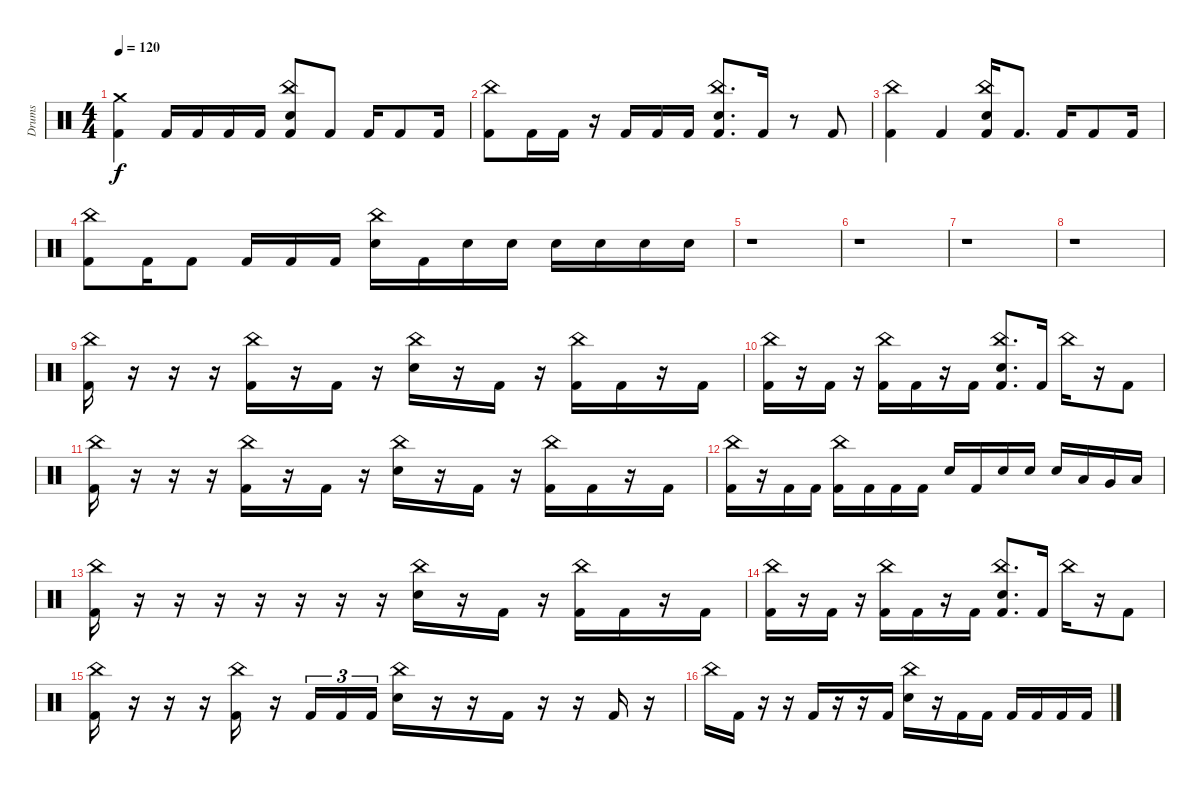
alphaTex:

\track ("Drums" "Drums") {instrument percussion}
\staff {score}
\articulation defaults
\ts (4 4)
\tempo 120
\clef neutral
\ks c
("Crash medium (hit)" "Kick (hit) 2").4{dy f} "Kick (hit) 2".16 "Kick (hit) 2".16 "Kick (hit) 2".16 "Kick (hit) 2".16 ("China (hit)" "Electric Snare (hit)" "Kick (hit) 2").8 "Kick (hit) 2".8 "Kick (hit) 2".16 "Kick (hit) 2".8 "Kick (hit) 2".16 |
("China (hit)" "Kick (hit) 2").8 "Kick (hit) 2".16 "Kick (hit) 2".16 r.16 "Kick (hit) 2".16 "Kick (hit) 2".16 "Kick (hit) 2".16 ("China (hit)" "Electric Snare (hit)" "Kick (hit) 2").8{d} "Kick (hit) 2".16 r.8 "Kick (hit) 2".8 |
("China (hit)" "Kick (hit) 2").4 "Kick (hit) 2".4 ("China (hit)" "Electric Snare (hit)" "Kick (hit) 2").16 "Kick (hit) 2".8{d} "Kick (hit) 2".16 "Kick (hit) 2".8 "Kick (hit) 2".16 |
("China (hit)" "Kick (hit) 2").8 "Kick (hit) 2".16 "Kick (hit) 2".8 "Kick (hit) 2".16 "Kick (hit) 2".16 "Kick (hit) 2".16 ("China (hit)" "Electric Snare (hit)").16 "Kick (hit) 2".16 "Electric Snare (hit)".16 "Electric Snare (hit)".16 "Electric Snare (hit)".16 "Electric Snare (hit)".16 "Electric Snare (hit)".16 "Electric Snare (hit)".16 |
r.1 |
r.1 |
r.1 |
r.1 |
("China (hit)" "Kick (hit) 2").16 r.16 r.16 r.16 ("China (hit)" "Kick (hit) 2").16 r.16 "Kick (hit) 2".16 r.16 ("China (hit)" "Electric Snare (hit)").16 r.16 "Kick (hit) 2".16 r.16 ("China (hit)" "Kick (hit) 2").16 "Kick (hit) 2".16 r.16 "Kick (hit) 2".16 |
("China (hit)" "Kick (hit) 2").16 r.16 "Kick (hit) 2".16 r.16 ("China (hit)" "Kick (hit) 2").16 "Kick (hit) 2".16 r.16 "Kick (hit) 2".16 ("China (hit)" "Electric Snare (hit)" "Kick (hit) 2").8{d} "Kick (hit) 2".16 "China (hit)".16 r.16 "Kick (hit) 2".8 |
("China (hit)" "Kick (hit) 2").16 r.16 r.16 r.16 ("China (hit)" "Kick (hit) 2").16 r.16 "Kick (hit) 2".16 r.16 ("China (hit)" "Electric Snare (hit)").16 r.16 "Kick (hit) 2".16 r.16 ("China (hit)" "Kick (hit) 2").16 "Kick (hit) 2".16 r.16 "Kick (hit) 2".16 |
("China (hit)" "Kick (hit) 2").16 r.16 "Kick (hit) 2".16 "Kick (hit) 2".16 ("China (hit)" "Kick (hit) 2").16 "Kick (hit) 2".16 "Kick (hit) 2".16 "Kick (hit) 2".16 "Electric Snare (hit)".16 "Kick (hit) 2".16 "Electric Snare (hit)".16 "Electric Snare (hit)".16 "Electric Snare (hit)".16 "Low Tom (hit)".16 "Very Low Tom (hit)".16 "Low Floor Tom (hit)".16 |
("China (hit)" "Kick (hit) 2").16 r.16 r.16 r.16 r.16 r.16 r.16 r.16 ("China (hit)" "Electric Snare (hit)").16 r.16 "Kick (hit) 2".16 r.16 ("China (hit)" "Kick (hit) 2").16 "Kick (hit) 2".16 r.16 "Kick (hit) 2".16 |
("China (hit)" "Kick (hit) 2").16 r.16 "Kick (hit) 2".16 r.16 ("China (hit)" "Kick (hit) 2").16 "Kick (hit) 2".16 r.16 "Kick (hit) 2".16 ("China (hit)" "Electric Snare (hit)" "Kick (hit) 2").8{d} "Kick (hit) 2".16 "China (hit)".16 r.16 "Kick (hit) 2".8 |
("China (hit)" "Kick (hit) 2").16 r.16 r.16 r.16 ("China (hit)" "Kick (hit) 2").16 r.16 "Kick (hit) 2".16{tu (3 2)} "Kick (hit) 2".16{tu (3 2)} "Kick (hit) 2".16{tu (3 2)} ("China (hit)" "Electric Snare (hit)").16 r.16 r.16 "Kick (hit) 2".16 r.16 r.16 "Kick (hit) 2".16 r.16 |
"China (hit)".16 "Kick (hit) 2".16 r.16 r.16 "Kick (hit) 2".16 r.16 r.16 "Kick (hit) 2".16 ("China (hit)" "Electric Snare (hit)").16 r.16 "Kick (hit) 2".16 "Kick (hit) 2".16 "Kick (hit) 2".16 "Kick (hit) 2".16 "Kick (hit) 2".16 "Kick (hit) 2".16
